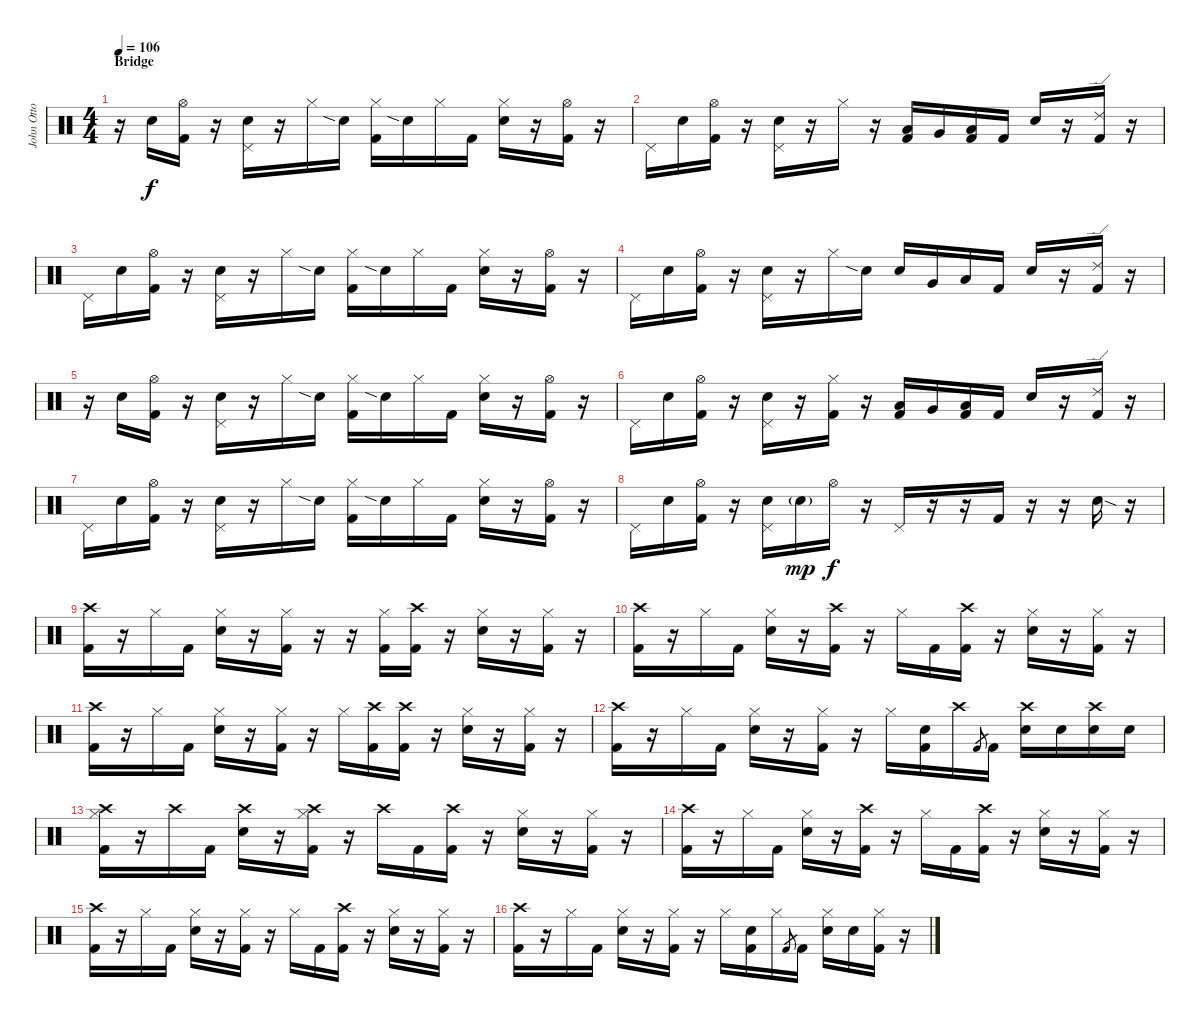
\track ("John Otto - Drums" "John Otto ") {instrument percussion}
\staff {score}
\articulation defaults
\ts (4 4)
\section ("" "Bridge")
\tempo 106
\clef neutral
\ks c
r.16{dy f} "Snare (hit) 2".16 ("Hi-Hat (open)" "Kick (hit) 2").16 r.16 ("Snare (hit) 2" "Pedal Hi-Hat (hit)").16 r.16 "Hi-Hat (closed)".16 "Snare (hit) 2"{sia}.16 ("Hi-Hat (closed)" "Kick (hit) 2").16 "Snare (hit) 2"{sia}.16 "Hi-Hat (closed)".16 "Kick (hit) 2".16 ("Hi-Hat (closed)" "Snare (hit) 2").16 r.16 ("Hi-Hat (open)" "Kick (hit) 2").16 r.16 |
"Pedal Hi-Hat (hit)".16 "Snare (hit) 2".16 ("Hi-Hat (open)" "Kick (hit) 2").16 r.16 ("Snare (hit) 2" "Pedal Hi-Hat (hit)").16 r.16 "Hi-Hat (closed)".16 r.16 ("Low Floor Tom (hit)" "Kick (hit) 2").16 "Very Low Tom (hit)".16 ("Low Floor Tom (hit)" "Kick (hit) 2").16 "Kick (hit) 2".16 "Snare (hit) 2".16 r.16 ("Ride (edge) 2" "Kick (hit) 2").16 r.16 |
"Pedal Hi-Hat (hit)".16 "Snare (hit) 2".16 ("Hi-Hat (open)" "Kick (hit) 2").16 r.16 ("Snare (hit) 2" "Pedal Hi-Hat (hit)").16 r.16 "Hi-Hat (closed)".16 "Snare (hit) 2"{sia}.16 ("Hi-Hat (closed)" "Kick (hit) 2").16 "Snare (hit) 2"{sia}.16 "Hi-Hat (closed)".16 "Kick (hit) 2".16 ("Hi-Hat (closed)" "Snare (hit) 2").16 r.16 ("Hi-Hat (open)" "Kick (hit) 2").16 r.16 |
"Pedal Hi-Hat (hit)".16 "Snare (hit) 2".16 ("Hi-Hat (open)" "Kick (hit) 2").16 r.16 ("Snare (hit) 2" "Pedal Hi-Hat (hit)").16 r.16 "Hi-Hat (closed)".16 "Snare (hit) 2"{sia}.16 "Snare (hit) 2".16 "Very Low Tom (hit)".16 "Low Tom (hit)".16 "Kick (hit) 2".16 "Snare (hit) 2".16 r.16 ("Ride (edge) 2" "Kick (hit) 2").16 r.16 |
r.16 "Snare (hit) 2".16 ("Hi-Hat (open)" "Kick (hit) 2").16 r.16 ("Snare (hit) 2" "Pedal Hi-Hat (hit)").16 r.16 "Hi-Hat (closed)".16 "Snare (hit) 2"{sia}.16 ("Hi-Hat (closed)" "Kick (hit) 2").16 "Snare (hit) 2"{sia}.16 "Hi-Hat (closed)".16 "Kick (hit) 2".16 ("Hi-Hat (closed)" "Snare (hit) 2").16 r.16 ("Hi-Hat (open)" "Kick (hit) 2").16 r.16 |
"Pedal Hi-Hat (hit)".16 "Snare (hit) 2".16 ("Hi-Hat (open)" "Kick (hit) 2").16 r.16 ("Snare (hit) 2" "Pedal Hi-Hat (hit)").16 r.16 ("Hi-Hat (closed)" "Kick (hit) 2").16 r.16 ("Low Floor Tom (hit)" "Kick (hit) 2").16 "Very Low Tom (hit)".16 ("Low Floor Tom (hit)" "Kick (hit) 2").16 "Kick (hit) 2".16 "Snare (hit) 2".16 r.16 ("Ride (edge) 2" "Kick (hit) 2").16 r.16 |
"Pedal Hi-Hat (hit)".16 "Snare (hit) 2".16 ("Hi-Hat (open)" "Kick (hit) 2").16 r.16 ("Snare (hit) 2" "Pedal Hi-Hat (hit)").16 r.16 "Hi-Hat (closed)".16 "Snare (hit) 2"{sia}.16 ("Hi-Hat (closed)" "Kick (hit) 2").16 "Snare (hit) 2"{sia}.16 "Hi-Hat (closed)".16 "Kick (hit) 2".16 ("Hi-Hat (closed)" "Snare (hit) 2").16 r.16 ("Hi-Hat (open)" "Kick (hit) 2").16 r.16 |
"Pedal Hi-Hat (hit)".16 "Snare (hit) 2".16 ("Hi-Hat (open)" "Kick (hit) 2").16 r.16 ("Snare (hit) 2" "Pedal Hi-Hat (hit)").16 "Snare (hit) 2"{g}.16{dy mp} "Hi-Hat (open)".16{dy f} r.16 "Pedal Hi-Hat (hit)".16 r.16 r.16 "Kick (hit) 2".16 r.16 r.16 "Snare (hit) 2"{sod}.16 r.16 |
("Crash high (hit)" "Kick (hit) 2").16 r.16 "Hi-Hat (closed)".16 "Kick (hit) 2".16 ("Hi-Hat (closed)" "Snare (hit) 2").16 r.16 ("Hi-Hat (closed)" "Kick (hit) 2").16 r.16 r.16 ("Hi-Hat (closed)" "Kick (hit) 2").16 ("Crash high (hit)" "Kick (hit) 2").16 r.16 ("Hi-Hat (closed)" "Snare (hit) 2").16 r.16 ("Hi-Hat (closed)" "Kick (hit) 2").16 r.16 |
("Crash high (hit)" "Kick (hit) 2").16 r.16 "Hi-Hat (closed)".16 "Kick (hit) 2".16 ("Hi-Hat (closed)" "Snare (hit) 2").16 r.16 ("Crash high (hit)" "Kick (hit) 2").16 r.16 "Hi-Hat (closed)".16 "Kick (hit) 2".16 ("Crash high (hit)" "Kick (hit) 2").16 r.16 ("Hi-Hat (closed)" "Snare (hit) 2").16 r.16 ("Hi-Hat (closed)" "Kick (hit) 2").16 r.16 |
("Crash high (hit)" "Kick (hit) 2").16 r.16 "Hi-Hat (closed)".16 "Kick (hit) 2".16 ("Hi-Hat (closed)" "Snare (hit) 2").16 r.16 ("Hi-Hat (closed)" "Kick (hit) 2").16 r.16 "Hi-Hat (closed)".16 ("Crash high (hit)" "Kick (hit) 2").16 ("Crash high (hit)" "Kick (hit) 2").16 r.16 ("Hi-Hat (closed)" "Snare (hit) 2").16 r.16 ("Hi-Hat (closed)" "Kick (hit) 2").16 r.16 |
("Crash high (hit)" "Kick (hit) 2").16 r.16 "Hi-Hat (closed)".16 "Kick (hit) 2".16 ("Hi-Hat (closed)" "Snare (hit) 2").16 r.16 ("Hi-Hat (closed)" "Kick (hit) 2").16 r.16 "Hi-Hat (closed)".16 ("Snare (hit) 2" "Kick (hit) 2").16 "Crash high (hit)".16 "Kick (hit) 2".8{gr} "Kick (hit) 2".16 ("Crash high (hit)" "Snare (hit) 2").16 "Snare (hit) 2".16 ("Crash high (hit)" "Snare (hit) 2").16 "Snare (hit) 2".16 |
("Crash high (hit)" "Hi-Hat (closed)" "Kick (hit) 2").16 r.16 "Crash high (hit)".16 "Kick (hit) 2".16 ("Crash high (hit)" "Snare (hit) 2").16 r.16 ("Crash high (hit)" "Hi-Hat (closed)" "Kick (hit) 2").16 r.16 "Crash high (hit)".16 "Kick (hit) 2".16 ("Crash high (hit)" "Kick (hit) 2").16 r.16 ("Hi-Hat (closed)" "Snare (hit) 2").16 r.16 ("Hi-Hat (closed)" "Kick (hit) 2").16 r.16 |
("Crash high (hit)" "Kick (hit) 2").16 r.16 "Hi-Hat (closed)".16 "Kick (hit) 2".16 ("Hi-Hat (closed)" "Snare (hit) 2").16 r.16 ("Crash high (hit)" "Kick (hit) 2").16 r.16 "Hi-Hat (closed)".16 "Kick (hit) 2".16 ("Crash high (hit)" "Kick (hit) 2").16 r.16 ("Hi-Hat (closed)" "Snare (hit) 2").16 r.16 ("Hi-Hat (closed)" "Kick (hit) 2").16 r.16 |
("Crash high (hit)" "Kick (hit) 2").16 r.16 "Hi-Hat (closed)".16 "Kick (hit) 2".16 ("Hi-Hat (closed)" "Snare (hit) 2").16 r.16 ("Hi-Hat (closed)" "Kick (hit) 2").16 r.16 "Hi-Hat (closed)".16 "Kick (hit) 2".16 ("Crash high (hit)" "Kick (hit) 2").16 r.16 ("Hi-Hat (closed)" "Snare (hit) 2").16 r.16 ("Hi-Hat (closed)" "Kick (hit) 2").16 r.16 |
("Crash high (hit)" "Kick (hit) 2").16 r.16 "Hi-Hat (closed)".16 "Kick (hit) 2".16 ("Hi-Hat (closed)" "Snare (hit) 2").16 r.16 ("Hi-Hat (closed)" "Kick (hit) 2").16 r.16 "Hi-Hat (closed)".16 ("Snare (hit) 2" "Kick (hit) 2").16 "Hi-Hat (closed)".16 "Kick (hit) 2".8{gr} "Kick (hit) 2".16 ("Hi-Hat (closed)" "Snare (hit) 2").16 "Snare (hit) 2".16 ("Hi-Hat (closed)" "Kick (hit) 2").16 r.16
